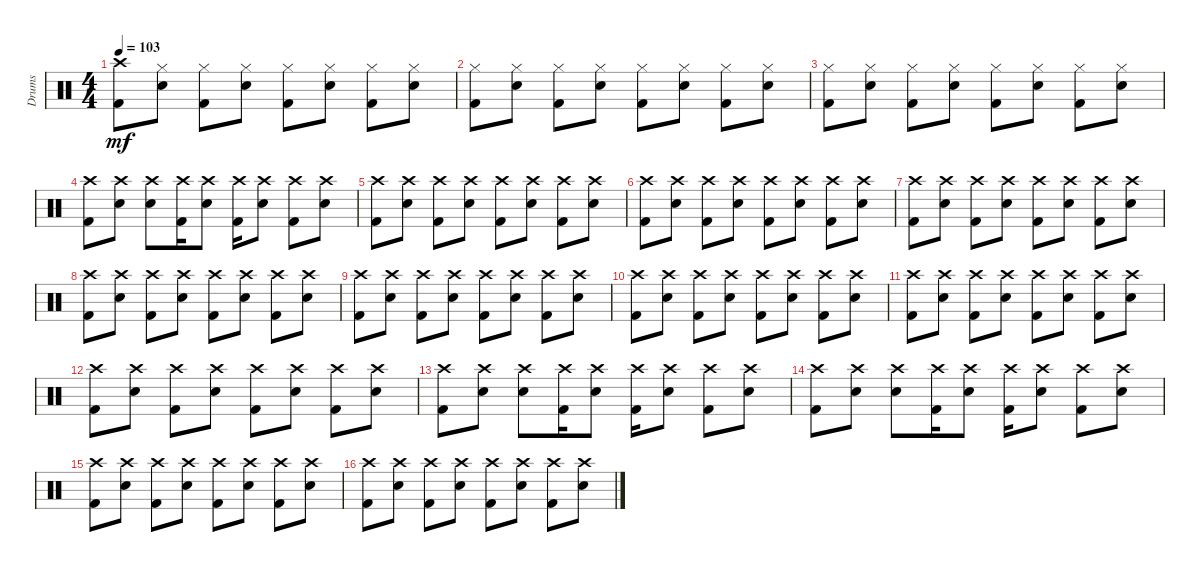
\track ("Drums" "Drums") {instrument percussion}
\staff {score}
\articulation defaults
\ts (4 4)
\tempo 103
\clef neutral
\ks c
("Crash high (hit)" "Kick (hit) 2").8{dy mf} ("Hi-Hat (closed)" "Snare (hit) 2").8 ("Hi-Hat (closed)" "Kick (hit) 2").8 ("Hi-Hat (closed)" "Snare (hit) 2").8 ("Hi-Hat (closed)" "Kick (hit) 2").8 ("Hi-Hat (closed)" "Snare (hit) 2").8 ("Hi-Hat (closed)" "Kick (hit) 2").8 ("Hi-Hat (closed)" "Snare (hit) 2").8 |
("Hi-Hat (closed)" "Kick (hit) 2").8 ("Hi-Hat (closed)" "Snare (hit) 2").8 ("Hi-Hat (closed)" "Kick (hit) 2").8 ("Hi-Hat (closed)" "Snare (hit) 2").8 ("Hi-Hat (closed)" "Kick (hit) 2").8 ("Hi-Hat (closed)" "Snare (hit) 2").8 ("Hi-Hat (closed)" "Kick (hit) 2").8 ("Hi-Hat (closed)" "Snare (hit) 2").8 |
("Hi-Hat (closed)" "Kick (hit) 2").8 ("Hi-Hat (closed)" "Snare (hit) 2").8 ("Hi-Hat (closed)" "Kick (hit) 2").8 ("Hi-Hat (closed)" "Snare (hit) 2").8 ("Hi-Hat (closed)" "Kick (hit) 2").8 ("Hi-Hat (closed)" "Snare (hit) 2").8 ("Hi-Hat (closed)" "Kick (hit) 2").8 ("Hi-Hat (closed)" "Snare (hit) 2").8 |
("Crash high (hit)" "Kick (hit) 2").8 ("Crash high (hit)" "Snare (hit) 2").8 ("Crash high (hit)" "Snare (hit) 2").8 ("Crash high (hit)" "Kick (hit) 2").16 ("Crash high (hit)" "Snare (hit) 2").8 ("Crash high (hit)" "Kick (hit) 2").16 ("Crash high (hit)" "Snare (hit) 2").8 ("Crash high (hit)" "Kick (hit) 2").8 ("Crash high (hit)" "Snare (hit) 2").8 |
("Crash high (hit)" "Kick (hit) 2").8 ("Crash high (hit)" "Snare (hit) 2").8 ("Crash high (hit)" "Kick (hit) 2").8 ("Crash high (hit)" "Snare (hit) 2").8 ("Crash high (hit)" "Kick (hit) 2").8 ("Crash high (hit)" "Snare (hit) 2").8 ("Crash high (hit)" "Kick (hit) 2").8 ("Crash high (hit)" "Snare (hit) 2").8 |
("Crash high (hit)" "Kick (hit) 2").8 ("Crash high (hit)" "Snare (hit) 2").8 ("Crash high (hit)" "Kick (hit) 2").8 ("Crash high (hit)" "Snare (hit) 2").8 ("Crash high (hit)" "Kick (hit) 2").8 ("Crash high (hit)" "Snare (hit) 2").8 ("Crash high (hit)" "Kick (hit) 2").8 ("Crash high (hit)" "Snare (hit) 2").8 |
("Crash high (hit)" "Kick (hit) 2").8 ("Crash high (hit)" "Snare (hit) 2").8 ("Crash high (hit)" "Kick (hit) 2").8 ("Crash high (hit)" "Snare (hit) 2").8 ("Crash high (hit)" "Kick (hit) 2").8 ("Crash high (hit)" "Snare (hit) 2").8 ("Crash high (hit)" "Kick (hit) 2").8 ("Crash high (hit)" "Snare (hit) 2").8 |
("Crash high (hit)" "Kick (hit) 2").8 ("Crash high (hit)" "Snare (hit) 2").8 ("Crash high (hit)" "Kick (hit) 2").8 ("Crash high (hit)" "Snare (hit) 2").8 ("Crash high (hit)" "Kick (hit) 2").8 ("Crash high (hit)" "Snare (hit) 2").8 ("Crash high (hit)" "Kick (hit) 2").8 ("Crash high (hit)" "Snare (hit) 2").8 |
("Crash high (hit)" "Kick (hit) 2").8 ("Crash high (hit)" "Snare (hit) 2").8 ("Crash high (hit)" "Kick (hit) 2").8 ("Crash high (hit)" "Snare (hit) 2").8 ("Crash high (hit)" "Kick (hit) 2").8 ("Crash high (hit)" "Snare (hit) 2").8 ("Crash high (hit)" "Kick (hit) 2").8 ("Crash high (hit)" "Snare (hit) 2").8 |
("Crash high (hit)" "Kick (hit) 2").8 ("Crash high (hit)" "Snare (hit) 2").8 ("Crash high (hit)" "Kick (hit) 2").8 ("Crash high (hit)" "Snare (hit) 2").8 ("Crash high (hit)" "Kick (hit) 2").8 ("Crash high (hit)" "Snare (hit) 2").8 ("Crash high (hit)" "Kick (hit) 2").8 ("Crash high (hit)" "Snare (hit) 2").8 |
("Crash high (hit)" "Kick (hit) 2").8 ("Crash high (hit)" "Snare (hit) 2").8 ("Crash high (hit)" "Kick (hit) 2").8 ("Crash high (hit)" "Snare (hit) 2").8 ("Crash high (hit)" "Kick (hit) 2").8 ("Crash high (hit)" "Snare (hit) 2").8 ("Crash high (hit)" "Kick (hit) 2").8 ("Crash high (hit)" "Snare (hit) 2").8 |
("Crash high (hit)" "Kick (hit) 2").8 ("Crash high (hit)" "Snare (hit) 2").8 ("Crash high (hit)" "Kick (hit) 2").8 ("Crash high (hit)" "Snare (hit) 2").8 ("Crash high (hit)" "Kick (hit) 2").8 ("Crash high (hit)" "Snare (hit) 2").8 ("Crash high (hit)" "Kick (hit) 2").8 ("Crash high (hit)" "Snare (hit) 2").8 |
("Crash high (hit)" "Kick (hit) 2").8 ("Crash high (hit)" "Snare (hit) 2").8 ("Crash high (hit)" "Snare (hit) 2").8 ("Crash high (hit)" "Kick (hit) 2").16 ("Crash high (hit)" "Snare (hit) 2").8 ("Crash high (hit)" "Kick (hit) 2").16 ("Crash high (hit)" "Snare (hit) 2").8 ("Crash high (hit)" "Kick (hit) 2").8 ("Crash high (hit)" "Snare (hit) 2").8 |
("Crash high (hit)" "Kick (hit) 2").8 ("Crash high (hit)" "Snare (hit) 2").8 ("Crash high (hit)" "Snare (hit) 2").8 ("Crash high (hit)" "Kick (hit) 2").16 ("Crash high (hit)" "Snare (hit) 2").8 ("Crash high (hit)" "Kick (hit) 2").16 ("Crash high (hit)" "Snare (hit) 2").8 ("Crash high (hit)" "Kick (hit) 2").8 ("Crash high (hit)" "Snare (hit) 2").8 |
("Crash high (hit)" "Kick (hit) 2").8 ("Crash high (hit)" "Snare (hit) 2").8 ("Crash high (hit)" "Kick (hit) 2").8 ("Crash high (hit)" "Snare (hit) 2").8 ("Crash high (hit)" "Kick (hit) 2").8 ("Crash high (hit)" "Snare (hit) 2").8 ("Crash high (hit)" "Kick (hit) 2").8 ("Crash high (hit)" "Snare (hit) 2").8 |
("Crash high (hit)" "Kick (hit) 2").8 ("Crash high (hit)" "Snare (hit) 2").8 ("Crash high (hit)" "Kick (hit) 2").8 ("Crash high (hit)" "Snare (hit) 2").8 ("Crash high (hit)" "Kick (hit) 2").8 ("Crash high (hit)" "Snare (hit) 2").8 ("Crash high (hit)" "Kick (hit) 2").8 ("Crash high (hit)" "Snare (hit) 2").8
